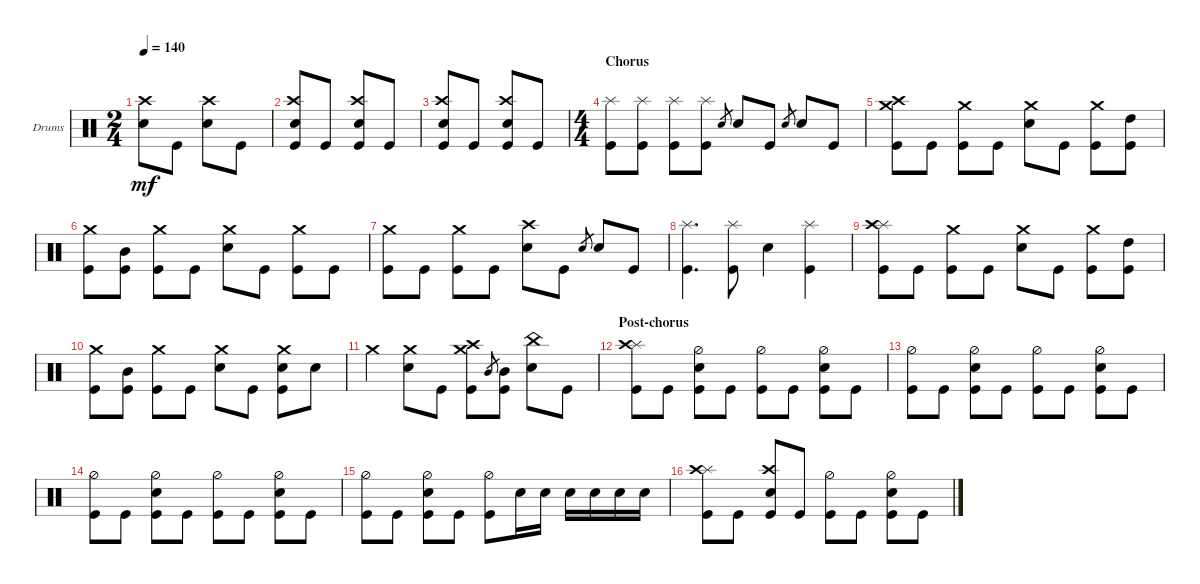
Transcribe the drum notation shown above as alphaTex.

\bracketExtendMode groupsimilarinstruments
\firstSystemTrackNameOrientation horizontal
\otherSystemsTrackNameOrientation horizontal
\track ("Drumkit" "Drums") {instrument percussion}
\staff {score}
\articulation defaults
\ts (2 4)
\tempo 140
\clef neutral
\ks c
("Snare (hit) 2" "Crash high (hit)").8{dy mf} "Kick (hit)".8 ("Snare (hit) 2" "Crash high (hit)").8 "Kick (hit)".8 |
("Snare (hit) 2" "Crash high (hit)" "Kick (hit)").8 "Kick (hit)".8 ("Snare (hit) 2" "Crash high (hit)" "Kick (hit)").8 "Kick (hit)".8 |
("Snare (hit) 2" "Crash high (hit)" "Kick (hit)").8 "Kick (hit)".8 ("Snare (hit) 2" "Crash high (hit)" "Kick (hit)").8 "Kick (hit)".8 |
\ts (4 4)
\section ("" "Chorus")
("Kick (hit)" "Splash (hit)").8 ("Kick (hit)" "Splash (hit)").8 ("Kick (hit)" "Splash (hit)").8 ("Kick (hit)" "Splash (hit)").8 "Snare (hit) 2".8{gr} "Snare (hit) 2".8 "Kick (hit)".8 "Snare (hit) 2".8{gr} "Snare (hit) 2".8 "Kick (hit)".8 |
("Kick (hit)" "Crash medium (hit)" "Crash high (hit)").8 "Kick (hit)".8 ("Kick (hit)" "Crash medium (hit)").8 "Kick (hit)".8 ("Snare (hit) 2" "Crash medium (hit)").8 "Kick (hit)".8 ("Kick (hit)" "Crash medium (hit)").8 ("Kick (hit)" "High Tom (hit)").8 |
("Kick (hit)" "Crash medium (hit)").8 ("Kick (hit)" "Mid Tom (hit)").8 ("Kick (hit)" "Crash medium (hit)").8 "Kick (hit)".8 ("Snare (hit) 2" "Crash medium (hit)").8 "Kick (hit)".8 ("Kick (hit)" "Crash medium (hit)").8 "Kick (hit)".8 |
("Kick (hit)" "Crash medium (hit)").8 "Kick (hit)".8 ("Kick (hit)" "Crash medium (hit)").8 "Kick (hit)".8 ("Snare (hit) 2" "Crash high (hit)").8 "Kick (hit)".8 "Snare (hit) 2".8{gr} "Snare (hit) 2".8 "Kick (hit)".8 |
("Kick (hit)" "Splash (hit)").4{d} ("Kick (hit)" "Splash (hit)").8 "Snare (hit) 2".4 ("Kick (hit)" "Splash (hit)").4 |
("Kick (hit)" "Splash (hit)" "Crash high (hit)").8 "Kick (hit)".8 ("Kick (hit)" "Crash medium (hit)").8 "Kick (hit)".8 ("Snare (hit) 2" "Crash medium (hit)").8 "Kick (hit)".8 ("Kick (hit)" "Crash medium (hit)").8 ("Kick (hit)" "High Tom (hit)").8 |
("Kick (hit)" "Crash medium (hit)").8 ("Kick (hit)" "Mid Tom (hit)").8 ("Kick (hit)" "Crash medium (hit)").8 "Kick (hit)".8 ("Snare (hit) 2" "Crash medium (hit)").8 "Kick (hit)".8 ("Kick (hit)" "Crash medium (hit)" "Snare (hit) 2").8 "Snare (hit) 2".8 |
"Crash medium (hit)".4 ("Crash medium (hit)" "Snare (hit) 2").8 "Kick (hit)".8 ("Crash high (hit)" "Kick (hit)" "Crash medium (hit)").8 "Mid Tom (hit)".8{gr} ("Kick (hit)" "Mid Tom (hit)").8 ("Snare (hit) 2" "China (hit)").8 "Kick (hit)".8 |
\section ("" "Post-chorus")
("Kick (hit)" "Splash (hit)" "Crash high (hit)").8 "Kick (hit)".8 ("Hi-Hat (half)" "Snare (hit) 2" "Kick (hit)").8 "Kick (hit)".8 ("Kick (hit)" "Hi-Hat (half)").8 "Kick (hit)".8 ("Hi-Hat (half)" "Snare (hit) 2" "Kick (hit)").8 "Kick (hit)".8 |
("Kick (hit)" "Hi-Hat (half)").8 "Kick (hit)".8 ("Hi-Hat (half)" "Snare (hit) 2" "Kick (hit)").8 "Kick (hit)".8 ("Kick (hit)" "Hi-Hat (half)").8 "Kick (hit)".8 ("Hi-Hat (half)" "Snare (hit) 2" "Kick (hit)").8 "Kick (hit)".8 |
("Kick (hit)" "Hi-Hat (half)").8 "Kick (hit)".8 ("Hi-Hat (half)" "Snare (hit) 2" "Kick (hit)").8 "Kick (hit)".8 ("Kick (hit)" "Hi-Hat (half)").8 "Kick (hit)".8 ("Hi-Hat (half)" "Snare (hit) 2" "Kick (hit)").8 "Kick (hit)".8 |
("Kick (hit)" "Hi-Hat (half)").8 "Kick (hit)".8 ("Hi-Hat (half)" "Snare (hit) 2" "Kick (hit)").8 "Kick (hit)".8 ("Kick (hit)" "Hi-Hat (half)").8 "Snare (hit) 2".16 "Snare (hit) 2".16 "Snare (hit) 2".16 "Snare (hit) 2".16 "Snare (hit) 2".16 "Snare (hit) 2".16 |
("Kick (hit)" "Splash (hit)" "Crash high (hit)").8 "Kick (hit)".8 ("Snare (hit) 2" "Kick (hit)" "Crash high (hit)").8 "Kick (hit)".8 ("Kick (hit)" "Hi-Hat (half)").8 "Kick (hit)".8 ("Hi-Hat (half)" "Snare (hit) 2" "Kick (hit)").8 "Kick (hit)".8
